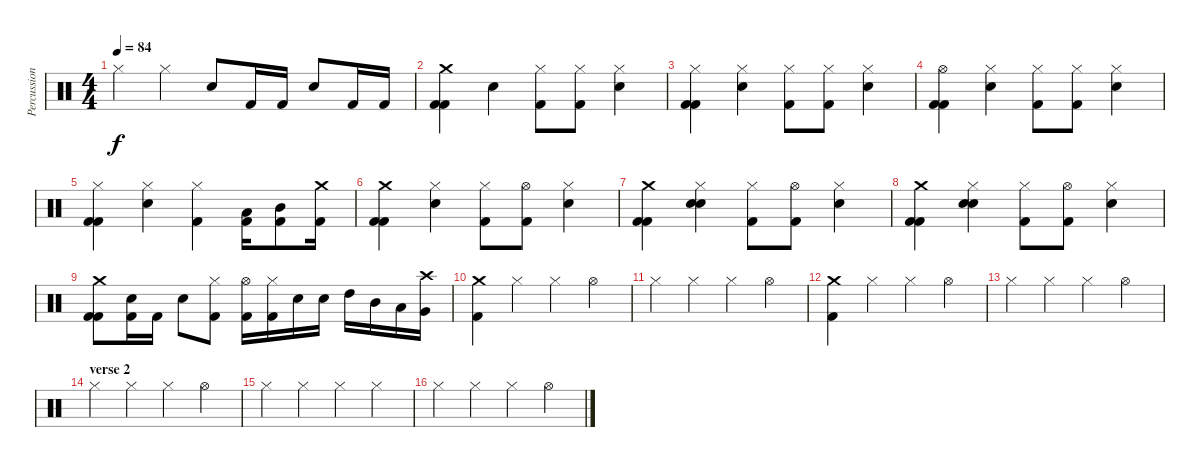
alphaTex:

\track ("Percussion" "Percussion") {instrument percussion}
\staff {score}
\articulation defaults
\ts (4 4)
\tempo 84
\clef neutral
\ks c "Hi-Hat (closed)".4{dy f} "Hi-Hat (closed)".4 "Electric Snare (hit)".8 "Kick (hit) 2".16 "Kick (hit) 2".16 "Electric Snare (hit)".8 "Kick (hit) 2".16 "Kick (hit) 2".16
|
("Crash medium (hit)" "Kick (hit) 2" "Kick (hit) 2").4 "Electric Snare (hit)".4 ("Kick (hit) 2" "Hi-Hat (closed)").8 ("Kick (hit) 2" "Hi-Hat (closed)").8 ("Electric Snare (hit)" "Hi-Hat (closed)").4 |
("Hi-Hat (closed)" "Kick (hit) 2" "Kick (hit) 2").4 ("Electric Snare (hit)" "Hi-Hat (closed)").4 ("Kick (hit) 2" "Hi-Hat (closed)").8 ("Kick (hit) 2" "Hi-Hat (closed)").8 ("Electric Snare (hit)" "Hi-Hat (closed)").4 |
("Hi-Hat (open)" "Kick (hit) 2" "Kick (hit) 2").4 ("Electric Snare (hit)" "Hi-Hat (closed)").4 ("Kick (hit) 2" "Hi-Hat (closed)").8 ("Kick (hit) 2" "Hi-Hat (closed)").8 ("Electric Snare (hit)" "Hi-Hat (closed)").4 |
("Kick (hit) 2" "Kick (hit) 2" "Hi-Hat (closed)").4 ("Hi-Hat (closed)" "Electric Snare (hit)").4 ("Kick (hit) 2" "Hi-Hat (closed)").4 ("Low Floor Tom (hit)" "Kick (hit) 2").16 ("Mid Tom (hit)" "Kick (hit) 2").8 ("Crash medium (hit)" "Kick (hit) 2").16 |
("Crash medium (hit)" "Kick (hit) 2" "Kick (hit) 2").4 ("Electric Snare (hit)" "Hi-Hat (closed)").4 ("Kick (hit) 2" "Hi-Hat (closed)").8 ("Kick (hit) 2" "Hi-Hat (open)").8 ("Electric Snare (hit)" "Hi-Hat (closed)").4 |
("Kick (hit) 2" "Kick (hit) 2" "Crash medium (hit)").4 ("Hi-Hat (closed)" "Electric Snare (hit)" "Electric Snare (hit)").4 ("Kick (hit) 2" "Hi-Hat (closed)").8 ("Kick (hit) 2" "Hi-Hat (open)").8 ("Electric Snare (hit)" "Hi-Hat (closed)").4 |
("Kick (hit) 2" "Kick (hit) 2" "Crash medium (hit)").4 ("Hi-Hat (closed)" "Electric Snare (hit)" "Electric Snare (hit)").4 ("Kick (hit) 2" "Hi-Hat (closed)").8 ("Kick (hit) 2" "Hi-Hat (open)").8 ("Electric Snare (hit)" "Hi-Hat (closed)").4 |
("Crash medium (hit)" "Kick (hit) 2" "Kick (hit) 2").8 ("Kick (hit) 2" "Electric Snare (hit)").16 "Kick (hit) 2".16 "Electric Snare (hit)".8 ("Kick (hit) 2" "Hi-Hat (closed)").8 ("Kick (hit) 2" "Hi-Hat (open)").16 ("Kick (hit) 2" "Hi-Hat (closed)").16 "Electric Snare (hit)".16 "Electric Snare (hit)".16 "High Tom (hit)".16 "Mid Tom (hit)".16 "Low Tom (hit)".16 ("Very Low Tom (hit)" "Crash high (hit)").16 |
("Crash medium (hit)" "Kick (hit) 2").4 "Hi-Hat (closed)".4 "Hi-Hat (closed)".4 "Hi-Hat (open)".4 |
"Hi-Hat (closed)".4 "Hi-Hat (closed)".4 "Hi-Hat (closed)".4 "Hi-Hat (open)".4 |
("Crash medium (hit)" "Kick (hit) 2").4 "Hi-Hat (closed)".4 "Hi-Hat (closed)".4 "Hi-Hat (open)".4 |
"Hi-Hat (closed)".4 "Hi-Hat (closed)".4 "Hi-Hat (closed)".4 "Hi-Hat (open)".4 |
\section ("" "verse 2")
"Hi-Hat (closed)".4 "Hi-Hat (closed)".4 "Hi-Hat (closed)".4 "Hi-Hat (open)".4 |
"Hi-Hat (closed)".4 "Hi-Hat (closed)".4 "Hi-Hat (closed)".4 "Hi-Hat (closed)".4 |
\section ("" "")
"Hi-Hat (closed)".4 "Hi-Hat (closed)".4 "Hi-Hat (closed)".4 "Hi-Hat (open)".4
